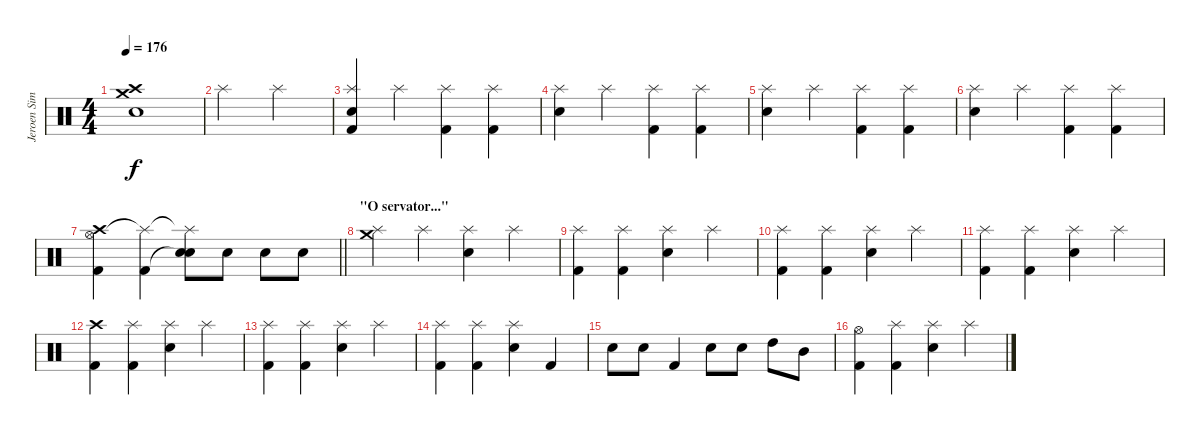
\track ("Jeroen Simons" "Jeroen Sim") {instrument percussion}
\staff {score}
\articulation defaults
\ts (4 4)
\tempo 176
\clef neutral
\ks c
("Crash high (hit)" "Crash medium (hit)" "Snare (hit) 2").1{dy f} |
"Splash (hit)".2 "Splash (hit)".2 |
("Splash (hit)" "Snare (hit) 2" "Kick (hit) 2").4 "Splash (hit)".4 ("Splash (hit)" "Kick (hit) 2").4 ("Splash (hit)" "Kick (hit) 2").4 |
("Splash (hit)" "Electric Snare (hit)").4 "Splash (hit)".4 ("Splash (hit)" "Kick (hit) 2").4 ("Splash (hit)" "Kick (hit) 2").4 |
("Splash (hit)" "Electric Snare (hit)").4 "Splash (hit)".4 ("Splash (hit)" "Kick (hit) 2").4 ("Splash (hit)" "Kick (hit) 2").4 |
("Splash (hit)" "Electric Snare (hit)").4 "Splash (hit)".4 ("Splash (hit)" "Kick (hit) 2").4 ("Splash (hit)" "Kick (hit) 2").4 |
\barLineRight lightlight
("Hi-Hat (open)" "Crash high (hit)" "Kick (hit) 2").4 ("Splash (hit)"{t} "Kick (hit) 2").4 ("Splash (hit)"{t} "Snare (hit)"{t} "Electric Snare (hit)").8 "Electric Snare (hit)".8 "Electric Snare (hit)".8 "Electric Snare (hit)".8 |
\section ("" "\"O servator...\"")
("Splash (hit)" "Crash medium (hit)").4 "Splash (hit)".4 ("Splash (hit)" "Electric Snare (hit)").4 "Splash (hit)".4 |
("Splash (hit)" "Kick (hit) 2").4 ("Splash (hit)" "Kick (hit) 2").4 ("Splash (hit)" "Electric Snare (hit)").4 "Splash (hit)".4 |
("Splash (hit)" "Kick (hit) 2").4 ("Splash (hit)" "Kick (hit) 2").4 ("Splash (hit)" "Electric Snare (hit)").4 "Splash (hit)".4 |
("Splash (hit)" "Kick (hit) 2").4 ("Splash (hit)" "Kick (hit) 2").4 ("Splash (hit)" "Electric Snare (hit)").4 "Splash (hit)".4 |
("Crash high (hit)" "Kick (hit) 2").4 ("Splash (hit)" "Kick (hit) 2").4 ("Splash (hit)" "Electric Snare (hit)").4 "Splash (hit)".4 |
("Splash (hit)" "Kick (hit) 2").4 ("Splash (hit)" "Kick (hit) 2").4 ("Splash (hit)" "Electric Snare (hit)").4 "Splash (hit)".4 |
("Splash (hit)" "Kick (hit) 2").4 ("Splash (hit)" "Kick (hit) 2").4 ("Splash (hit)" "Electric Snare (hit)").4 "Kick (hit) 2".4 |
"Electric Snare (hit)".8 "Electric Snare (hit)".8 "Kick (hit) 2".4 "Electric Snare (hit)".8 "Electric Snare (hit)".8 "High Tom (hit)".8 "Mid Tom (hit)".8 |
("Hi-Hat (open)" "Kick (hit) 2").4 ("Splash (hit)" "Kick (hit) 2").4 ("Splash (hit)" "Electric Snare (hit)").4 "Splash (hit)".4
